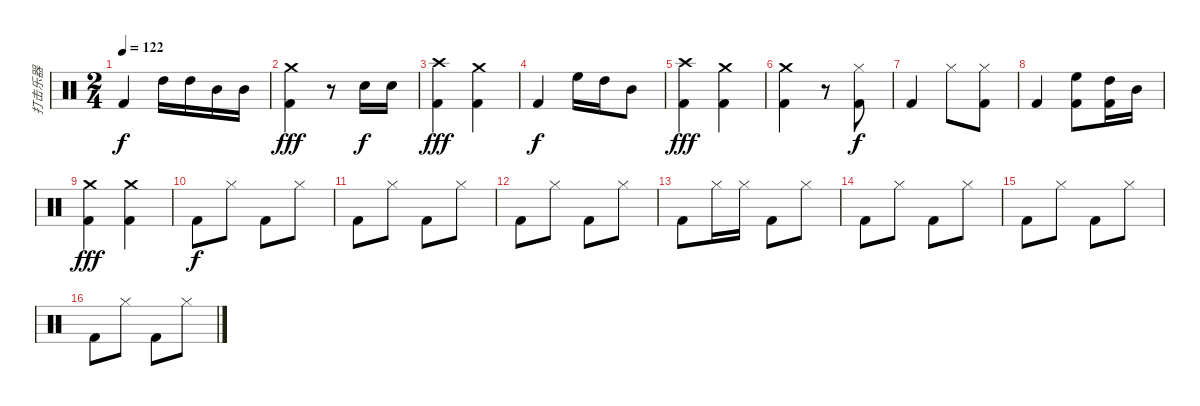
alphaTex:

\track ("打击乐器" "打击乐器") {instrument percussion}
\staff {score}
\articulation defaults
\ts (2 4)
\tempo 122
\clef neutral
\ks c "Kick (hit) 2".4{dy f} "High Tom (hit)".16 "High Tom (hit)".16 "Mid Tom (hit)".16 "Mid Tom (hit)".16
|
("Crash medium (hit)" "Kick (hit) 2").4{dy fff} r.8 "Snare (hit) 2".16{dy f} "Snare (hit) 2".16 |
("Crash high (hit)" "Kick (hit) 2").4{dy fff} ("Crash medium (hit)" "Kick (hit) 2").4 |
"Kick (hit) 2".4{dy f} "High Floor Tom (hit)".16 "High Tom (hit)".16 "Mid Tom (hit)".8 |
("Crash high (hit)" "Kick (hit) 2").4{dy fff} ("Crash medium (hit)" "Kick (hit) 2").4 |
("Crash medium (hit)" "Kick (hit) 2").4 r.8 ("Hi-Hat (closed)" "Kick (hit) 2").8{dy f} |
"Kick (hit) 2".4 "Hi-Hat (closed)".8 ("Hi-Hat (closed)" "Kick (hit) 2").8 |
"Kick (hit) 2".4 ("High Floor Tom (hit)" "Kick (hit) 2").8 ("High Tom (hit)" "Kick (hit) 2").16 "Mid Tom (hit)".16 |
("Crash medium (hit)" "Kick (hit) 2").4{dy fff} ("Crash medium (hit)" "Kick (hit) 2").4 |
"Kick (hit) 2".8{dy f} "Hi-Hat (closed)".8 "Kick (hit) 2".8 "Hi-Hat (closed)".8 |
"Kick (hit) 2".8 "Hi-Hat (closed)".8 "Kick (hit) 2".8 "Hi-Hat (closed)".8 |
"Kick (hit) 2".8 "Hi-Hat (closed)".8 "Kick (hit) 2".8 "Hi-Hat (closed)".8 |
"Kick (hit) 2".8 "Hi-Hat (closed)".16 "Hi-Hat (closed)".16 "Kick (hit) 2".8 "Hi-Hat (closed)".8 |
"Kick (hit) 2".8 "Hi-Hat (closed)".8 "Kick (hit) 2".8 "Hi-Hat (closed)".8 |
"Kick (hit) 2".8 "Hi-Hat (closed)".8 "Kick (hit) 2".8 "Hi-Hat (closed)".8 |
"Kick (hit) 2".8 "Hi-Hat (closed)".8 "Kick (hit) 2".8 "Hi-Hat (closed)".8
